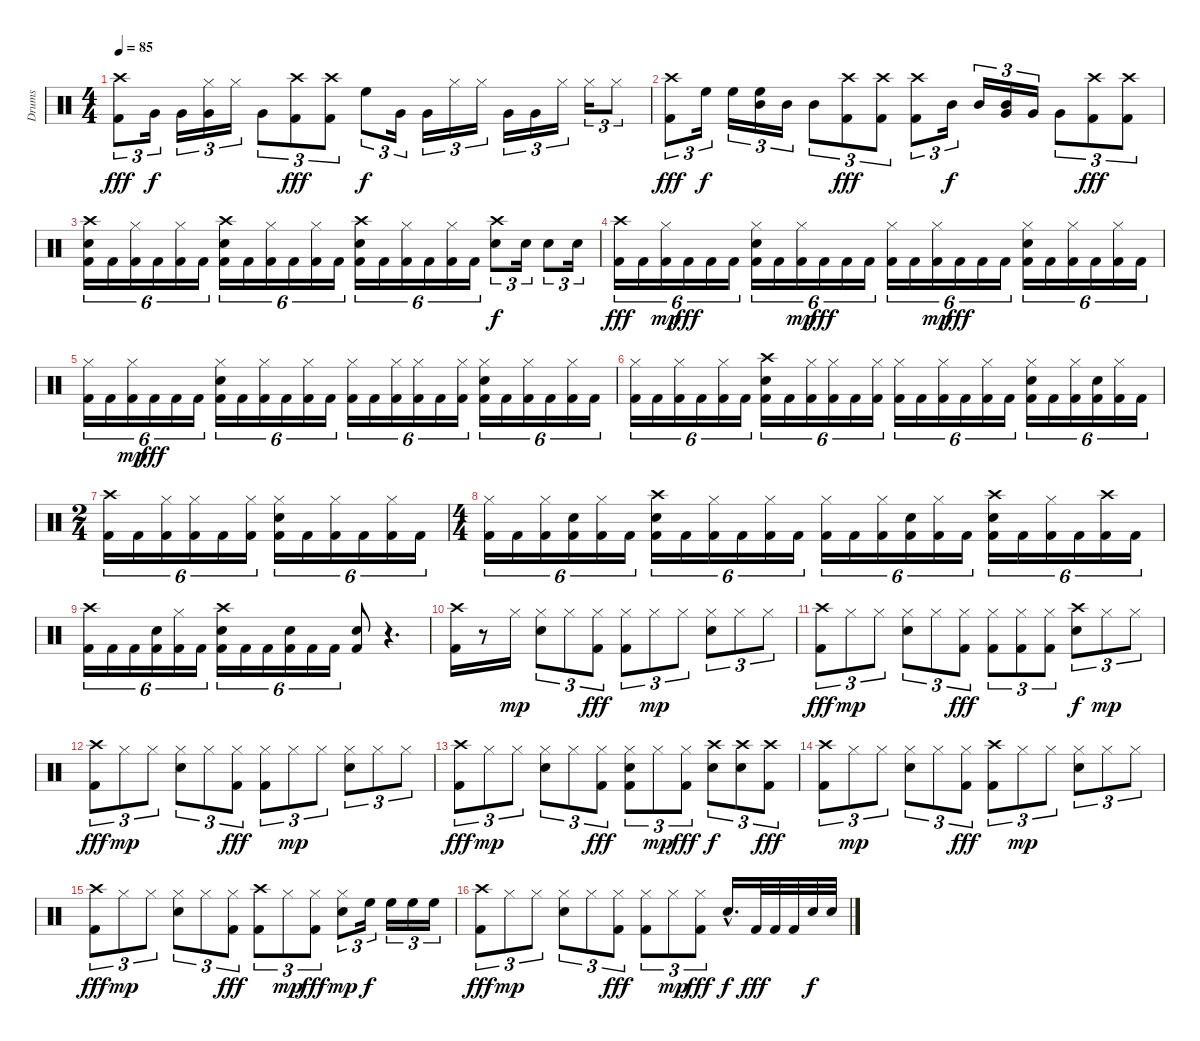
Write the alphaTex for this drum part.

\track ("Drums" "Drums") {instrument percussion}
\staff {score}
\articulation defaults
\ts (4 4)
\tempo 85
\clef neutral
\ks c
("Crash high (hit)" "Kick (hit) 2").8{tu (3 2) dy fff} "Very Low Tom (hit)".16{tu (3 2) dy f} "Very Low Tom (hit)".16{tu (3 2)} ("Very Low Tom (hit)" "Hi-Hat (closed)").16{tu (3 2)} "Hi-Hat (closed)".16{tu (3 2)} "Very Low Tom (hit)".8{tu (3 2)} ("Crash high (hit)" "Kick (hit) 2").8{tu (3 2) dy fff} ("Crash high (hit)" "Kick (hit) 2").8{tu (3 2)} "High Floor Tom (hit)".8{tu (3 2) dy f} "Very Low Tom (hit)".16{tu (3 2)} "Very Low Tom (hit)".16{tu (3 2)} "Hi-Hat (closed)".16{tu (3 2)} "Hi-Hat (closed)".16{tu (3 2)} "Very Low Tom (hit)".16{tu (3 2)} "Very Low Tom (hit)".16{tu (3 2)} "Hi-Hat (closed)".16{tu (3 2)} "Hi-Hat (closed)".16{tu (3 2)} "Hi-Hat (closed)".8{tu (3 2)} |
("Crash high (hit)" "Kick (hit) 2").8{tu (3 2) dy fff} "High Floor Tom (hit)".16{tu (3 2) dy f} "High Floor Tom (hit)".16{tu (3 2)} ("High Floor Tom (hit)" "Mid Tom (hit)").16{tu (3 2)} "Mid Tom (hit)".16{tu (3 2)} "Mid Tom (hit)".8{tu (3 2)} ("Crash high (hit)" "Kick (hit) 2").8{tu (3 2) dy fff} ("Crash high (hit)" "Kick (hit) 2").8{tu (3 2)} ("Crash high (hit)" "Kick (hit) 2").8{tu (3 2)} "Mid Tom (hit)".16{tu (3 2) dy f} "Mid Tom (hit)".16{tu (3 2)} ("Mid Tom (hit)" "Very Low Tom (hit)").16{tu (3 2)} "Very Low Tom (hit)".16{tu (3 2)} "Very Low Tom (hit)".8{tu (3 2)} ("Crash high (hit)" "Kick (hit) 2").8{tu (3 2) dy fff} ("Crash high (hit)" "Kick (hit) 2").8{tu (3 2)} |
("Snare (hit) 2" "Crash high (hit)" "Kick (hit) 2").16{tu (6 4)} "Kick (hit) 2".16{tu (6 4)} ("Hi-Hat (closed)" "Kick (hit) 2").16{tu (6 4)} "Kick (hit) 2".16{tu (6 4)} ("Hi-Hat (closed)" "Kick (hit) 2").16{tu (6 4)} "Kick (hit) 2".16{tu (6 4)} ("Snare (hit) 2" "Crash high (hit)" "Kick (hit) 2").16{tu (6 4)} "Kick (hit) 2".16{tu (6 4)} ("Hi-Hat (closed)" "Kick (hit) 2").16{tu (6 4)} "Kick (hit) 2".16{tu (6 4)} ("Hi-Hat (closed)" "Kick (hit) 2").16{tu (6 4)} "Kick (hit) 2".16{tu (6 4)} ("Snare (hit) 2" "Crash high (hit)" "Kick (hit) 2").16{tu (6 4)} "Kick (hit) 2".16{tu (6 4)} ("Hi-Hat (closed)" "Kick (hit) 2").16{tu (6 4)} "Kick (hit) 2".16{tu (6 4)} ("Hi-Hat (closed)" "Kick (hit) 2").16{tu (6 4)} "Kick (hit) 2".16{tu (6 4)} ("Snare (hit) 2" "Crash high (hit)").8{tu (3 2) dy f} "Snare (hit) 2".16{tu (3 2)} "Snare (hit) 2".8{tu (3 2)} "Snare (hit) 2".16{tu (3 2)} |
("Crash high (hit)" "Kick (hit) 2").16{tu (6 4) dy fff} "Kick (hit) 2".16{tu (6 4)} ("Kick (hit) 2" "Hi-Hat (closed)").16{tu (6 4) dy mp} "Kick (hit) 2".16{tu (6 4) dy fff} "Kick (hit) 2".16{tu (6 4)} "Kick (hit) 2".16{tu (6 4)} ("Snare (hit) 2" "Hi-Hat (closed)" "Kick (hit) 2").16{tu (6 4)} "Kick (hit) 2".16{tu (6 4)} ("Kick (hit) 2" "Hi-Hat (closed)").16{tu (6 4) dy mp} "Kick (hit) 2".16{tu (6 4) dy fff} "Kick (hit) 2".16{tu (6 4)} "Kick (hit) 2".16{tu (6 4)} ("Hi-Hat (closed)" "Kick (hit) 2").16{tu (6 4)} "Kick (hit) 2".16{tu (6 4)} ("Kick (hit) 2" "Hi-Hat (closed)").16{tu (6 4) dy mp} "Kick (hit) 2".16{tu (6 4) dy fff} "Kick (hit) 2".16{tu (6 4)} "Kick (hit) 2".16{tu (6 4)} ("Hi-Hat (closed)" "Snare (hit) 2" "Kick (hit) 2").16{tu (6 4)} "Kick (hit) 2".16{tu (6 4)} ("Hi-Hat (closed)" "Kick (hit) 2").16{tu (6 4)} "Kick (hit) 2".16{tu (6 4)} ("Hi-Hat (closed)" "Kick (hit) 2").16{tu (6 4)} "Kick (hit) 2".16{tu (6 4)} |
("Hi-Hat (closed)" "Kick (hit) 2").16{tu (6 4)} "Kick (hit) 2".16{tu (6 4)} ("Kick (hit) 2" "Hi-Hat (closed)").16{tu (6 4) dy mp} "Kick (hit) 2".16{tu (6 4) dy fff} "Kick (hit) 2".16{tu (6 4)} "Kick (hit) 2".16{tu (6 4)} ("Hi-Hat (closed)" "Snare (hit) 2" "Kick (hit) 2").16{tu (6 4)} "Kick (hit) 2".16{tu (6 4)} ("Hi-Hat (closed)" "Kick (hit) 2").16{tu (6 4)} "Kick (hit) 2".16{tu (6 4)} ("Hi-Hat (closed)" "Kick (hit) 2").16{tu (6 4)} "Kick (hit) 2".16{tu (6 4)} ("Hi-Hat (closed)" "Kick (hit) 2").16{tu (6 4)} "Kick (hit) 2".16{tu (6 4)} ("Hi-Hat (closed)" "Kick (hit) 2").16{tu (6 4)} ("Hi-Hat (closed)" "Kick (hit) 2").16{tu (6 4)} "Kick (hit) 2".16{tu (6 4)} ("Hi-Hat (closed)" "Kick (hit) 2").16{tu (6 4)} ("Hi-Hat (closed)" "Snare (hit) 2" "Kick (hit) 2").16{tu (6 4)} "Kick (hit) 2".16{tu (6 4)} ("Hi-Hat (closed)" "Kick (hit) 2").16{tu (6 4)} "Kick (hit) 2".16{tu (6 4)} ("Hi-Hat (closed)" "Kick (hit) 2").16{tu (6 4)} "Kick (hit) 2".16{tu (6 4)} |
("Hi-Hat (closed)" "Kick (hit) 2").16{tu (6 4)} "Kick (hit) 2".16{tu (6 4)} ("Hi-Hat (closed)" "Kick (hit) 2").16{tu (6 4)} "Kick (hit) 2".16{tu (6 4)} ("Hi-Hat (closed)" "Kick (hit) 2").16{tu (6 4)} "Kick (hit) 2".16{tu (6 4)} ("Snare (hit) 2" "Crash high (hit)" "Kick (hit) 2").16{tu (6 4)} "Kick (hit) 2".16{tu (6 4)} ("Hi-Hat (closed)" "Kick (hit) 2").16{tu (6 4)} ("Hi-Hat (closed)" "Kick (hit) 2").16{tu (6 4)} "Kick (hit) 2".16{tu (6 4)} ("Hi-Hat (closed)" "Kick (hit) 2").16{tu (6 4)} ("Hi-Hat (closed)" "Kick (hit) 2").16{tu (6 4)} "Kick (hit) 2".16{tu (6 4)} ("Hi-Hat (closed)" "Kick (hit) 2").16{tu (6 4)} "Kick (hit) 2".16{tu (6 4)} ("Hi-Hat (closed)" "Kick (hit) 2").16{tu (6 4)} "Kick (hit) 2".16{tu (6 4)} ("Hi-Hat (closed)" "Snare (hit) 2" "Kick (hit) 2").16{tu (6 4)} "Kick (hit) 2".16{tu (6 4)} ("Hi-Hat (closed)" "Kick (hit) 2").16{tu (6 4)} ("Snare (hit) 2" "Kick (hit) 2").16{tu (6 4)} ("Hi-Hat (closed)" "Kick (hit) 2").16{tu (6 4)} "Kick (hit) 2".16{tu (6 4)} |
\ts (2 4)
("Crash high (hit)" "Kick (hit) 2").16{tu (6 4)} "Kick (hit) 2".16{tu (6 4)} ("Hi-Hat (closed)" "Kick (hit) 2").16{tu (6 4)} ("Hi-Hat (closed)" "Kick (hit) 2").16{tu (6 4)} "Kick (hit) 2".16{tu (6 4)} ("Hi-Hat (closed)" "Kick (hit) 2").16{tu (6 4)} ("Snare (hit) 2" "Hi-Hat (closed)" "Kick (hit) 2").16{tu (6 4)} "Kick (hit) 2".16{tu (6 4)} ("Hi-Hat (closed)" "Kick (hit) 2").16{tu (6 4)} "Kick (hit) 2".16{tu (6 4)} ("Hi-Hat (closed)" "Kick (hit) 2").16{tu (6 4)} "Kick (hit) 2".16{tu (6 4)} |
\ts (4 4)
("Hi-Hat (closed)" "Kick (hit) 2").16{tu (6 4)} "Kick (hit) 2".16{tu (6 4)} ("Hi-Hat (closed)" "Kick (hit) 2").16{tu (6 4)} ("Snare (hit) 2" "Kick (hit) 2").16{tu (6 4)} ("Hi-Hat (closed)" "Kick (hit) 2").16{tu (6 4)} "Kick (hit) 2".16{tu (6 4)} ("Crash high (hit)" "Snare (hit) 2" "Kick (hit) 2").16{tu (6 4)} "Kick (hit) 2".16{tu (6 4)} ("Hi-Hat (closed)" "Kick (hit) 2").16{tu (6 4)} "Kick (hit) 2".16{tu (6 4)} ("Hi-Hat (closed)" "Kick (hit) 2").16{tu (6 4)} "Kick (hit) 2".16{tu (6 4)} ("Hi-Hat (closed)" "Kick (hit) 2").16{tu (6 4)} "Kick (hit) 2".16{tu (6 4)} ("Hi-Hat (closed)" "Kick (hit) 2").16{tu (6 4)} ("Snare (hit) 2" "Kick (hit) 2").16{tu (6 4)} ("Hi-Hat (closed)" "Kick (hit) 2").16{tu (6 4)} "Kick (hit) 2".16{tu (6 4)} ("Snare (hit) 2" "Crash high (hit)" "Kick (hit) 2").16{tu (6 4)} "Kick (hit) 2".16{tu (6 4)} ("Hi-Hat (closed)" "Kick (hit) 2").16{tu (6 4)} "Kick (hit) 2".16{tu (6 4)} ("Crash high (hit)" "Kick (hit) 2").16{tu (6 4)} "Kick (hit) 2".16{tu (6 4)} |
("Crash high (hit)" "Kick (hit) 2").16{tu (6 4)} "Kick (hit) 2".16{tu (6 4)} "Kick (hit) 2".16{tu (6 4)} ("Snare (hit) 2" "Kick (hit) 2").16{tu (6 4)} ("Hi-Hat (closed)" "Kick (hit) 2").16{tu (6 4)} "Kick (hit) 2".16{tu (6 4)} ("Snare (hit) 2" "Crash high (hit)" "Kick (hit) 2").16{tu (6 4)} "Kick (hit) 2".16{tu (6 4)} "Kick (hit) 2".16{tu (6 4)} ("Snare (hit) 2" "Kick (hit) 2").16{tu (6 4)} "Kick (hit) 2".16{tu (6 4)} "Kick (hit) 2".16{tu (6 4)} ("Snare (hit) 2" "Kick (hit) 2").8 r.4{d} |
("Crash high (hit)" "Kick (hit) 2").16 r.8 "Hi-Hat (closed)".16{dy mp} ("Snare (hit) 2" "Hi-Hat (closed)").8{tu (3 2)} "Hi-Hat (closed)".8{tu (3 2)} ("Hi-Hat (closed)" "Kick (hit) 2").8{tu (3 2) dy fff} ("Hi-Hat (closed)" "Kick (hit) 2").8{tu (3 2)} "Hi-Hat (closed)".8{tu (3 2) dy mp} "Hi-Hat (closed)".8{tu (3 2)} ("Snare (hit) 2" "Hi-Hat (closed)").8{tu (3 2)} "Hi-Hat (closed)".8{tu (3 2)} "Hi-Hat (closed)".8{tu (3 2)} |
("Crash high (hit)" "Kick (hit) 2").8{tu (3 2) dy fff} "Hi-Hat (closed)".8{tu (3 2) dy mp} "Hi-Hat (closed)".8{tu (3 2)} ("Snare (hit) 2" "Hi-Hat (closed)").8{tu (3 2)} "Hi-Hat (closed)".8{tu (3 2)} ("Hi-Hat (closed)" "Kick (hit) 2").8{tu (3 2) dy fff} ("Hi-Hat (closed)" "Kick (hit) 2").8{tu (3 2)} ("Hi-Hat (closed)" "Kick (hit) 2").8{tu (3 2)} ("Hi-Hat (closed)" "Kick (hit) 2").8{tu (3 2)} ("Snare (hit) 2" "Crash high (hit)").8{tu (3 2) dy f} "Hi-Hat (closed)".8{tu (3 2) dy mp} "Hi-Hat (closed)".8{tu (3 2)} |
("Crash high (hit)" "Kick (hit) 2").8{tu (3 2) dy fff} "Hi-Hat (closed)".8{tu (3 2) dy mp} "Hi-Hat (closed)".8{tu (3 2)} ("Snare (hit) 2" "Hi-Hat (closed)").8{tu (3 2)} "Hi-Hat (closed)".8{tu (3 2)} ("Hi-Hat (closed)" "Kick (hit) 2").8{tu (3 2) dy fff} ("Hi-Hat (closed)" "Kick (hit) 2").8{tu (3 2)} "Hi-Hat (closed)".8{tu (3 2) dy mp} "Hi-Hat (closed)".8{tu (3 2)} ("Snare (hit) 2" "Hi-Hat (closed)").8{tu (3 2)} "Hi-Hat (closed)".8{tu (3 2)} "Hi-Hat (closed)".8{tu (3 2)} |
("Crash high (hit)" "Kick (hit) 2").8{tu (3 2) dy fff} "Hi-Hat (closed)".8{tu (3 2) dy mp} "Hi-Hat (closed)".8{tu (3 2)} ("Snare (hit) 2" "Hi-Hat (closed)").8{tu (3 2)} "Hi-Hat (closed)".8{tu (3 2)} ("Hi-Hat (closed)" "Kick (hit) 2").8{tu (3 2) dy fff} ("Snare (hit) 2" "Hi-Hat (closed)" "Kick (hit) 2").8{tu (3 2)} "Hi-Hat (closed)".8{tu (3 2) dy mp} ("Hi-Hat (closed)" "Kick (hit) 2").8{tu (3 2) dy fff} ("Snare (hit) 2" "Crash high (hit)").8{tu (3 2) dy f} ("Snare (hit) 2" "Crash high (hit)").8{tu (3 2)} ("Crash high (hit)" "Kick (hit) 2").8{tu (3 2) dy fff} |
("Crash high (hit)" "Kick (hit) 2").8{tu (3 2)} "Hi-Hat (closed)".8{tu (3 2) dy mp} "Hi-Hat (closed)".8{tu (3 2)} ("Snare (hit) 2" "Hi-Hat (closed)").8{tu (3 2)} "Hi-Hat (closed)".8{tu (3 2)} ("Hi-Hat (closed)" "Kick (hit) 2").8{tu (3 2) dy fff} ("Crash high (hit)" "Kick (hit) 2").8{tu (3 2)} "Hi-Hat (closed)".8{tu (3 2) dy mp} "Hi-Hat (closed)".8{tu (3 2)} ("Snare (hit) 2" "Hi-Hat (closed)").8{tu (3 2)} "Hi-Hat (closed)".8{tu (3 2)} "Hi-Hat (closed)".8{tu (3 2)} |
("Crash high (hit)" "Kick (hit) 2").8{tu (3 2) dy fff} "Hi-Hat (closed)".8{tu (3 2) dy mp} "Hi-Hat (closed)".8{tu (3 2)} ("Snare (hit) 2" "Hi-Hat (closed)").8{tu (3 2)} "Hi-Hat (closed)".8{tu (3 2)} ("Hi-Hat (closed)" "Kick (hit) 2").8{tu (3 2) dy fff} ("Crash high (hit)" "Kick (hit) 2").8{tu (3 2)} "Hi-Hat (closed)".8{tu (3 2) dy mp} ("Hi-Hat (closed)" "Kick (hit) 2").8{tu (3 2) dy fff} ("Snare (hit) 2" "Hi-Hat (closed)").8{tu (3 2) dy mp} "High Floor Tom (hit)".16{tu (3 2) dy f} "High Floor Tom (hit)".16{tu (3 2)} "High Floor Tom (hit)".16{tu (3 2)} "High Floor Tom (hit)".16{tu (3 2)} |
("Crash high (hit)" "Kick (hit) 2").8{tu (3 2) dy fff} "Hi-Hat (closed)".8{tu (3 2) dy mp} "Hi-Hat (closed)".8{tu (3 2)} ("Snare (hit) 2" "Hi-Hat (closed)").8{tu (3 2)} "Hi-Hat (closed)".8{tu (3 2)} ("Hi-Hat (closed)" "Kick (hit) 2").8{tu (3 2) dy fff} ("Hi-Hat (closed)" "Kick (hit) 2").8{tu (3 2)} "Hi-Hat (closed)".8{tu (3 2) dy mp} ("Hi-Hat (closed)" "Kick (hit) 2").8{tu (3 2) dy fff} "Snare (hit) 2"{hac}.16{d dy f} "Kick (hit) 2".32{dy fff} "Kick (hit) 2".32 "Kick (hit) 2".32 "Snare (hit) 2".32{dy f} "Snare (hit) 2".32
